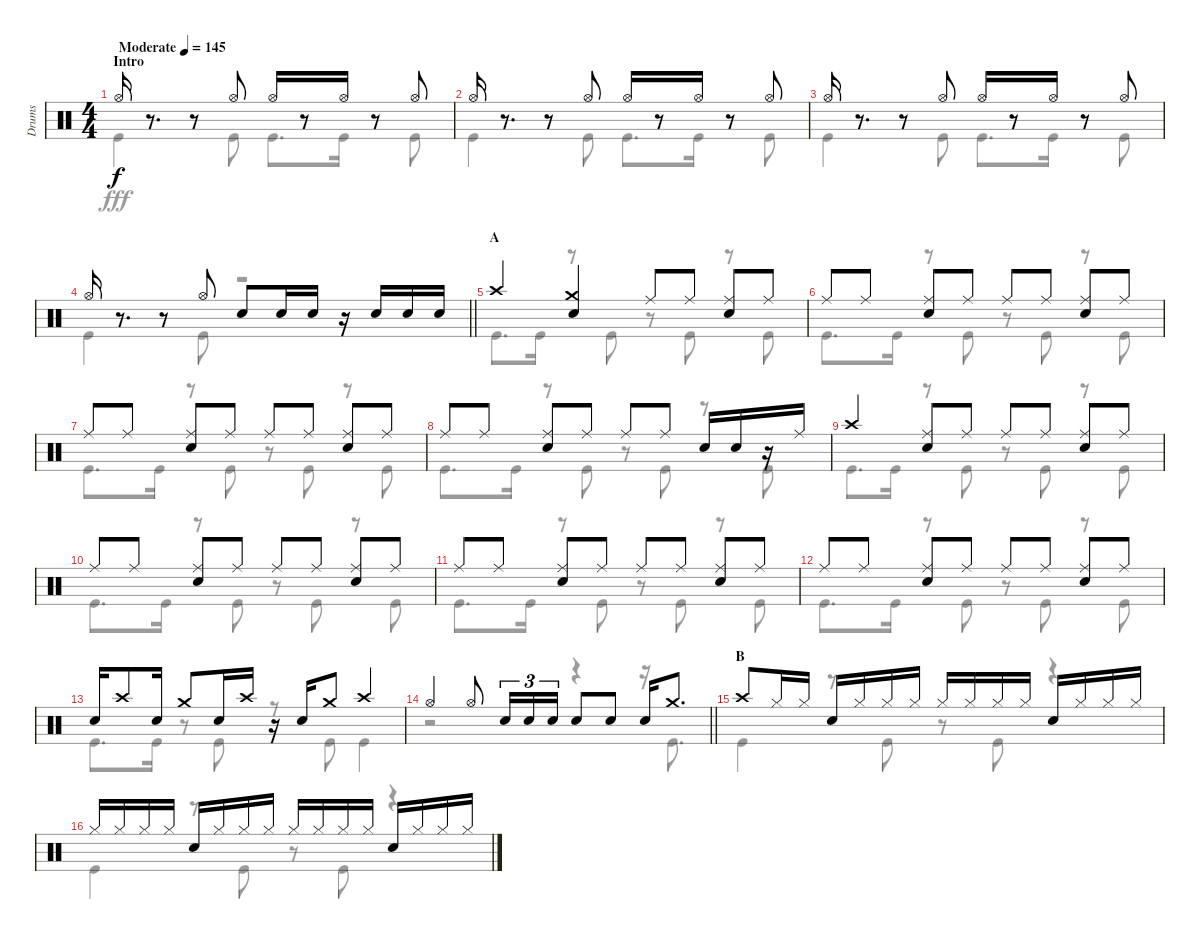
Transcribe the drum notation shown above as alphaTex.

\track ("Drums" "Drums") {instrument percussion}
\staff {score}
\articulation defaults
\voice
\ts (4 4)
\section ("" "Intro")
\tempo (145 "Moderate")
\clef neutral
\ks c "Hi-Hat (open)".16{dy f}
r.8{d} r.8 "Hi-Hat (open)".8 "Hi-Hat (open)".16 r.8 "Hi-Hat (open)".16 r.8 "Hi-Hat (open)".8 |
"Hi-Hat (open)".16 r.8{d} r.8 "Hi-Hat (open)".8 "Hi-Hat (open)".16 r.8 "Hi-Hat (open)".16 r.8 "Hi-Hat (open)".8 |
"Hi-Hat (open)".16 r.8{d} r.8 "Hi-Hat (open)".8 "Hi-Hat (open)".16 r.8 "Hi-Hat (open)".16 r.8 "Hi-Hat (open)".8 |
\barLineRight lightlight "Hi-Hat (open)".16
r.8{d} r.8 "Hi-Hat (open)".8 "Snare (hit) 2".8 "Snare (hit) 2".16 "Snare (hit) 2".16 r.16 "Snare (hit) 2".16 "Snare (hit) 2".16 "Snare (hit) 2".16 |
\section ("" "A")
"Crash high (hit)".4 ("Crash medium (hit)" "Snare (hit) 2").4 "Ride (middle)".8 "Ride (middle)".8 ("Ride (middle)" "Snare (hit) 2").8 "Ride (middle)".8 |
"Ride (middle)".8 "Ride (middle)".8 ("Ride (middle)" "Snare (hit) 2").8 "Ride (middle)".8 "Ride (middle)".8 "Ride (middle)".8 ("Ride (middle)" "Snare (hit) 2").8 "Ride (middle)".8 |
"Ride (middle)".8 "Ride (middle)".8 ("Ride (middle)" "Snare (hit) 2").8 "Ride (middle)".8 "Ride (middle)".8 "Ride (middle)".8 ("Ride (middle)" "Snare (hit) 2").8 "Ride (middle)".8 |
"Ride (middle)".8 "Ride (middle)".8 ("Ride (middle)" "Snare (hit) 2").8 "Ride (middle)".8 "Ride (middle)".8 "Ride (middle)".8 "Snare (hit) 2".16 "Snare (hit) 2".16 r.16 "Ride (middle)".16 |
"Crash high (hit)".4 ("Ride (middle)" "Snare (hit) 2").8 "Ride (middle)".8 "Ride (middle)".8 "Ride (middle)".8 ("Ride (middle)" "Snare (hit) 2").8 "Ride (middle)".8 |
"Ride (middle)".8 "Ride (middle)".8 ("Ride (middle)" "Snare (hit) 2").8 "Ride (middle)".8 "Ride (middle)".8 "Ride (middle)".8 ("Ride (middle)" "Snare (hit) 2").8 "Ride (middle)".8 |
"Ride (middle)".8 "Ride (middle)".8 ("Ride (middle)" "Snare (hit) 2").8 "Ride (middle)".8 "Ride (middle)".8 "Ride (middle)".8 ("Ride (middle)" "Snare (hit) 2").8 "Ride (middle)".8 |
"Ride (middle)".8 "Ride (middle)".8 ("Ride (middle)" "Snare (hit) 2").8 "Ride (middle)".8 "Ride (middle)".8 "Ride (middle)".8 ("Ride (middle)" "Snare (hit) 2").8 "Ride (middle)".8 |
"Snare (hit) 2".16 "Crash high (hit)".8 "Snare (hit) 2".16 "Crash medium (hit)".8 "Snare (hit) 2".16 "Crash high (hit)".16 r.16 "Snare (hit) 2".16 "Crash medium (hit)".8 "Crash high (hit)".4 |
\barLineRight lightlight "Hi-Hat (open)".4 "Hi-Hat (open)".8 "Snare (hit) 2".16{tu (3 2)} "Snare (hit) 2".16{tu (3 2)} "Snare (hit) 2".16{tu (3 2)} "Snare (hit) 2".8 "Snare (hit) 2".8 "Snare (hit) 2".16 "Crash medium (hit)".8{d}
|
\section ("" "B")
"Crash high (hit)".8 "Hi-Hat (closed)".16 "Hi-Hat (closed)".16 "Snare (hit) 2".16 "Hi-Hat (closed)".16 "Hi-Hat (closed)".16 "Hi-Hat (closed)".16 "Hi-Hat (closed)".16 "Hi-Hat (closed)".16 "Hi-Hat (closed)".16 "Hi-Hat (closed)".16 "Snare (hit) 2".16 "Hi-Hat (closed)".16 "Hi-Hat (closed)".16 "Hi-Hat (closed)".16 |
"Hi-Hat (closed)".16 "Hi-Hat (closed)".16 "Hi-Hat (closed)".16 "Hi-Hat (closed)".16 "Snare (hit) 2".16 "Hi-Hat (closed)".16 "Hi-Hat (closed)".16 "Hi-Hat (closed)".16 "Hi-Hat (closed)".16 "Hi-Hat (closed)".16 "Hi-Hat (closed)".16 "Hi-Hat (closed)".16 "Snare (hit) 2".16 "Hi-Hat (closed)".16 "Hi-Hat (closed)".16 "Hi-Hat (closed)".16
\voice
\clef neutral
\ottava regular
\simile none
\ks c "Kick (hit)".4{dy fff}
r.8 "Kick (hit)".8 "Kick (hit)".8{d} "Kick (hit)".16 r.8 "Kick (hit)".8 |
"Kick (hit)".4 r.8 "Kick (hit)".8 "Kick (hit)".8{d} "Kick (hit)".16 r.8 "Kick (hit)".8 |
"Kick (hit)".4 r.8 "Kick (hit)".8 "Kick (hit)".8{d} "Kick (hit)".16 r.8 "Kick (hit)".8 |
\barLineRight lightlight "Kick (hit)".4
r.8 "Kick (hit)".8 r.2 |
"Kick (hit)".8{d} "Kick (hit)".16 r.8 "Kick (hit)".8 r.8 "Kick (hit)".8 r.8 "Kick (hit)".8 |
"Kick (hit)".8{d} "Kick (hit)".16 r.8 "Kick (hit)".8 r.8 "Kick (hit)".8 r.8 "Kick (hit)".8 |
"Kick (hit)".8{d} "Kick (hit)".16 r.8 "Kick (hit)".8 r.8 "Kick (hit)".8 r.8 "Kick (hit)".8 |
"Kick (hit)".8{d} "Kick (hit)".16 r.8 "Kick (hit)".8 r.8 "Kick (hit)".8 r.8 "Kick (hit)".8 |
"Kick (hit)".8{d} "Kick (hit)".16 r.8 "Kick (hit)".8 r.8 "Kick (hit)".8 r.8 "Kick (hit)".8 |
"Kick (hit)".8{d} "Kick (hit)".16 r.8 "Kick (hit)".8 r.8 "Kick (hit)".8 r.8 "Kick (hit)".8 |
"Kick (hit)".8{d} "Kick (hit)".16 r.8 "Kick (hit)".8 r.8 "Kick (hit)".8 r.8 "Kick (hit)".8 |
"Kick (hit)".8{d} "Kick (hit)".16 r.8 "Kick (hit)".8 r.8 "Kick (hit)".8 r.8 "Kick (hit)".8 |
"Kick (hit)".8{d} "Kick (hit)".16 r.8 "Kick (hit)".8 r.8 "Kick (hit)".8 "Kick (hit)".4 |
\barLineRight lightlight
r.2 r.4 r.16 "Kick (hit)".8{d} |
"Kick (hit)".4 r.8 "Kick (hit)".8 r.8 "Kick (hit)".8 r.4 |
"Kick (hit)".4 r.8 "Kick (hit)".8 r.8 "Kick (hit)".8 r.4
